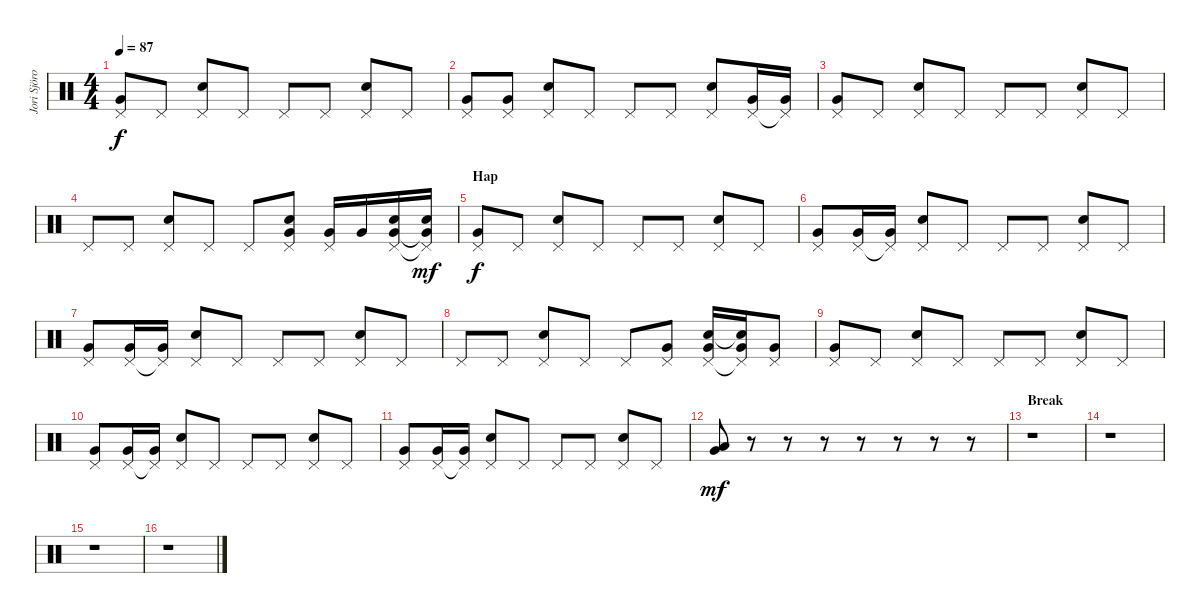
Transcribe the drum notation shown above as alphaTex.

\track ("Jori Sjöroos" "Jori Sjöro") {instrument percussion}
\staff {score}
\articulation defaults
\ts (4 4)
\tempo 87
\clef neutral
\ks c
("Pedal Hi-Hat (hit)" "Very Low Tom (hit)").8{dy f} "Pedal Hi-Hat (hit)".8 ("Snare (hit) 2" "Pedal Hi-Hat (hit)").8 "Pedal Hi-Hat (hit)".8 "Pedal Hi-Hat (hit)".8 "Pedal Hi-Hat (hit)".8 ("Snare (hit) 2" "Pedal Hi-Hat (hit)").8 "Pedal Hi-Hat (hit)".8 |
("Pedal Hi-Hat (hit)" "Very Low Tom (hit)").8 ("Pedal Hi-Hat (hit)" "Very Low Tom (hit)").8 ("Snare (hit) 2" "Pedal Hi-Hat (hit)").8 "Pedal Hi-Hat (hit)".8 "Pedal Hi-Hat (hit)".8 "Pedal Hi-Hat (hit)".8 ("Snare (hit) 2" "Pedal Hi-Hat (hit)").8 ("Pedal Hi-Hat (hit)" "Very Low Tom (hit)").16 ("Pedal Hi-Hat (hit)"{t} "Very Low Tom (hit)").16 |
("Pedal Hi-Hat (hit)" "Very Low Tom (hit)").8 "Pedal Hi-Hat (hit)".8 ("Snare (hit) 2" "Pedal Hi-Hat (hit)").8 "Pedal Hi-Hat (hit)".8 "Pedal Hi-Hat (hit)".8 "Pedal Hi-Hat (hit)".8 ("Snare (hit) 2" "Pedal Hi-Hat (hit)").8 "Pedal Hi-Hat (hit)".8 |
"Pedal Hi-Hat (hit)".8 "Pedal Hi-Hat (hit)".8 ("Snare (hit) 2" "Pedal Hi-Hat (hit)").8 "Pedal Hi-Hat (hit)".8 "Pedal Hi-Hat (hit)".8 ("Snare (hit) 2" "Pedal Hi-Hat (hit)" "Very Low Tom (hit)").8 ("Pedal Hi-Hat (hit)" "Very Low Tom (hit)").16 "Very Low Tom (hit)".16 ("Snare (hit) 2" "Pedal Hi-Hat (hit)" "Very Low Tom (hit)").16 ("Snare (hit) 2" "Pedal Hi-Hat (hit)"{t} "Very Low Tom (hit)"{t}).16{dy mf} |
\section ("" "Hap")
("Pedal Hi-Hat (hit)" "Very Low Tom (hit)").8{dy f} "Pedal Hi-Hat (hit)".8 ("Snare (hit) 2" "Pedal Hi-Hat (hit)").8 "Pedal Hi-Hat (hit)".8 "Pedal Hi-Hat (hit)".8 "Pedal Hi-Hat (hit)".8 ("Snare (hit) 2" "Pedal Hi-Hat (hit)").8 "Pedal Hi-Hat (hit)".8 |
("Pedal Hi-Hat (hit)" "Very Low Tom (hit)").8 ("Pedal Hi-Hat (hit)" "Very Low Tom (hit)").16 ("Pedal Hi-Hat (hit)"{t} "Very Low Tom (hit)").16 ("Snare (hit) 2" "Pedal Hi-Hat (hit)").8 "Pedal Hi-Hat (hit)".8 "Pedal Hi-Hat (hit)".8 "Pedal Hi-Hat (hit)".8 ("Snare (hit) 2" "Pedal Hi-Hat (hit)").8 "Pedal Hi-Hat (hit)".8 |
("Pedal Hi-Hat (hit)" "Very Low Tom (hit)").8 ("Pedal Hi-Hat (hit)" "Very Low Tom (hit)").16 ("Pedal Hi-Hat (hit)"{t} "Very Low Tom (hit)").16 ("Snare (hit) 2" "Pedal Hi-Hat (hit)").8 "Pedal Hi-Hat (hit)".8 "Pedal Hi-Hat (hit)".8 "Pedal Hi-Hat (hit)".8 ("Snare (hit) 2" "Pedal Hi-Hat (hit)").8 "Pedal Hi-Hat (hit)".8 |
"Pedal Hi-Hat (hit)".8 "Pedal Hi-Hat (hit)".8 ("Snare (hit) 2" "Pedal Hi-Hat (hit)").8 "Pedal Hi-Hat (hit)".8 "Pedal Hi-Hat (hit)".8 ("Pedal Hi-Hat (hit)" "Very Low Tom (hit)").8 ("Snare (hit) 2" "Pedal Hi-Hat (hit)" "Very Low Tom (hit)").16 ("Snare (hit) 2"{t} "Pedal Hi-Hat (hit)"{t} "Very Low Tom (hit)").16 ("Pedal Hi-Hat (hit)" "Very Low Tom (hit)").8 |
("Pedal Hi-Hat (hit)" "Very Low Tom (hit)").8 "Pedal Hi-Hat (hit)".8 ("Snare (hit) 2" "Pedal Hi-Hat (hit)").8 "Pedal Hi-Hat (hit)".8 "Pedal Hi-Hat (hit)".8 "Pedal Hi-Hat (hit)".8 ("Snare (hit) 2" "Pedal Hi-Hat (hit)").8 "Pedal Hi-Hat (hit)".8 |
("Pedal Hi-Hat (hit)" "Very Low Tom (hit)").8 ("Pedal Hi-Hat (hit)" "Very Low Tom (hit)").16 ("Pedal Hi-Hat (hit)"{t} "Very Low Tom (hit)").16 ("Snare (hit) 2" "Pedal Hi-Hat (hit)").8 "Pedal Hi-Hat (hit)".8 "Pedal Hi-Hat (hit)".8 "Pedal Hi-Hat (hit)".8 ("Snare (hit) 2" "Pedal Hi-Hat (hit)").8 "Pedal Hi-Hat (hit)".8 |
("Pedal Hi-Hat (hit)" "Very Low Tom (hit)").8 ("Pedal Hi-Hat (hit)" "Very Low Tom (hit)").16 ("Pedal Hi-Hat (hit)"{t} "Very Low Tom (hit)").16 ("Snare (hit) 2" "Pedal Hi-Hat (hit)").8 "Pedal Hi-Hat (hit)".8 "Pedal Hi-Hat (hit)".8 "Pedal Hi-Hat (hit)".8 ("Snare (hit) 2" "Pedal Hi-Hat (hit)").8 "Pedal Hi-Hat (hit)".8 |
("Very Low Tom (hit)" "Low Tom (hit)").8{dy mf} r.8 r.8 r.8 r.8 r.8 r.8 r.8 |
\section ("" "Break")
r.1 |
r.1 |
r.1 |
r.1
